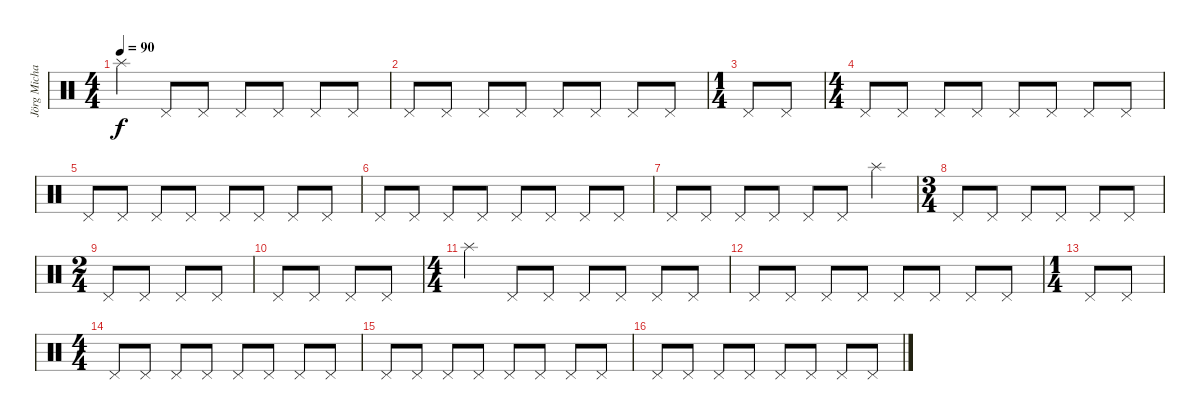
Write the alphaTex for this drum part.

\track ("Jörg Michael Drums" "Jörg Micha") {instrument percussion}
\staff {score}
\articulation defaults
\ts (4 4)
\tempo 90
\clef neutral
\ks c "Splash (hit)".4{dy f} "Pedal Hi-Hat (hit)".8 "Pedal Hi-Hat (hit)".8 "Pedal Hi-Hat (hit)".8 "Pedal Hi-Hat (hit)".8 "Pedal Hi-Hat (hit)".8 "Pedal Hi-Hat (hit)".8
|
"Pedal Hi-Hat (hit)".8 "Pedal Hi-Hat (hit)".8 "Pedal Hi-Hat (hit)".8 "Pedal Hi-Hat (hit)".8 "Pedal Hi-Hat (hit)".8 "Pedal Hi-Hat (hit)".8 "Pedal Hi-Hat (hit)".8 "Pedal Hi-Hat (hit)".8 |
\ts (1 4)
"Pedal Hi-Hat (hit)".8 "Pedal Hi-Hat (hit)".8 |
\ts (4 4)
"Pedal Hi-Hat (hit)".8 "Pedal Hi-Hat (hit)".8 "Pedal Hi-Hat (hit)".8 "Pedal Hi-Hat (hit)".8 "Pedal Hi-Hat (hit)".8 "Pedal Hi-Hat (hit)".8 "Pedal Hi-Hat (hit)".8 "Pedal Hi-Hat (hit)".8 |
"Pedal Hi-Hat (hit)".8 "Pedal Hi-Hat (hit)".8 "Pedal Hi-Hat (hit)".8 "Pedal Hi-Hat (hit)".8 "Pedal Hi-Hat (hit)".8 "Pedal Hi-Hat (hit)".8 "Pedal Hi-Hat (hit)".8 "Pedal Hi-Hat (hit)".8 |
"Pedal Hi-Hat (hit)".8 "Pedal Hi-Hat (hit)".8 "Pedal Hi-Hat (hit)".8 "Pedal Hi-Hat (hit)".8 "Pedal Hi-Hat (hit)".8 "Pedal Hi-Hat (hit)".8 "Pedal Hi-Hat (hit)".8 "Pedal Hi-Hat (hit)".8 |
"Pedal Hi-Hat (hit)".8 "Pedal Hi-Hat (hit)".8 "Pedal Hi-Hat (hit)".8 "Pedal Hi-Hat (hit)".8 "Pedal Hi-Hat (hit)".8 "Pedal Hi-Hat (hit)".8 "Splash (hit)".4 |
\ts (3 4)
"Pedal Hi-Hat (hit)".8 "Pedal Hi-Hat (hit)".8 "Pedal Hi-Hat (hit)".8 "Pedal Hi-Hat (hit)".8 "Pedal Hi-Hat (hit)".8 "Pedal Hi-Hat (hit)".8 |
\ts (2 4)
"Pedal Hi-Hat (hit)".8 "Pedal Hi-Hat (hit)".8 "Pedal Hi-Hat (hit)".8 "Pedal Hi-Hat (hit)".8 |
"Pedal Hi-Hat (hit)".8 "Pedal Hi-Hat (hit)".8 "Pedal Hi-Hat (hit)".8 "Pedal Hi-Hat (hit)".8 |
\ts (4 4)
"Splash (hit)".4 "Pedal Hi-Hat (hit)".8 "Pedal Hi-Hat (hit)".8 "Pedal Hi-Hat (hit)".8 "Pedal Hi-Hat (hit)".8 "Pedal Hi-Hat (hit)".8 "Pedal Hi-Hat (hit)".8 |
"Pedal Hi-Hat (hit)".8 "Pedal Hi-Hat (hit)".8 "Pedal Hi-Hat (hit)".8 "Pedal Hi-Hat (hit)".8 "Pedal Hi-Hat (hit)".8 "Pedal Hi-Hat (hit)".8 "Pedal Hi-Hat (hit)".8 "Pedal Hi-Hat (hit)".8 |
\ts (1 4)
"Pedal Hi-Hat (hit)".8 "Pedal Hi-Hat (hit)".8 |
\ts (4 4)
"Pedal Hi-Hat (hit)".8 "Pedal Hi-Hat (hit)".8 "Pedal Hi-Hat (hit)".8 "Pedal Hi-Hat (hit)".8 "Pedal Hi-Hat (hit)".8 "Pedal Hi-Hat (hit)".8 "Pedal Hi-Hat (hit)".8 "Pedal Hi-Hat (hit)".8 |
"Pedal Hi-Hat (hit)".8 "Pedal Hi-Hat (hit)".8 "Pedal Hi-Hat (hit)".8 "Pedal Hi-Hat (hit)".8 "Pedal Hi-Hat (hit)".8 "Pedal Hi-Hat (hit)".8 "Pedal Hi-Hat (hit)".8 "Pedal Hi-Hat (hit)".8 |
"Pedal Hi-Hat (hit)".8 "Pedal Hi-Hat (hit)".8 "Pedal Hi-Hat (hit)".8 "Pedal Hi-Hat (hit)".8 "Pedal Hi-Hat (hit)".8 "Pedal Hi-Hat (hit)".8 "Pedal Hi-Hat (hit)".8 "Pedal Hi-Hat (hit)".8
